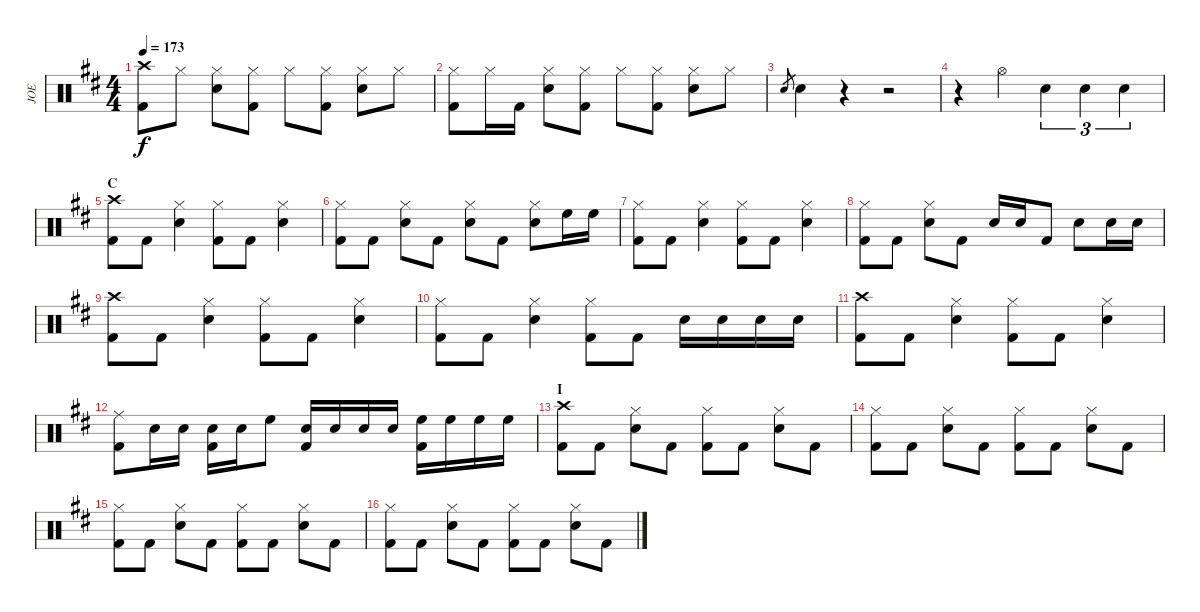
\track ("JOE" "JOE") {instrument percussion}
\staff {score}
\articulation defaults
\ts (4 4)
\tempo 173
\clef neutral
\ks bminor
("Crash high (hit)" "Kick (hit) 2").8{dy f} "Hi-Hat (closed)".8 ("Hi-Hat (closed)" "Snare (hit) 2").8 ("Hi-Hat (closed)" "Kick (hit) 2").8 "Hi-Hat (closed)".8 ("Hi-Hat (closed)" "Kick (hit) 2").8 ("Hi-Hat (closed)" "Snare (hit) 2").8 "Hi-Hat (closed)".8 |
("Hi-Hat (closed)" "Kick (hit) 2").8 "Hi-Hat (closed)".16 "Kick (hit) 2".16 ("Hi-Hat (closed)" "Snare (hit) 2").8 ("Hi-Hat (closed)" "Kick (hit) 2").8 "Hi-Hat (closed)".8 ("Hi-Hat (closed)" "Kick (hit) 2").8 ("Hi-Hat (closed)" "Snare (hit) 2").8 "Hi-Hat (closed)".8 |
"Snare (hit) 2".8{gr} "Snare (hit) 2".4 r.4 r.2 |
r.4 "Hi-Hat (open)".4 "Snare (hit) 2".4{tu (3 2)} "Snare (hit) 2".4{tu (3 2)} "Snare (hit) 2".4{tu (3 2)} |
\section ("" "C")
("Crash high (hit)" "Kick (hit) 2").8 "Kick (hit) 2".8 ("Hi-Hat (closed)" "Snare (hit) 2").4 ("Hi-Hat (closed)" "Kick (hit) 2").8 "Kick (hit) 2".8 ("Hi-Hat (closed)" "Snare (hit) 2").4 |
("Hi-Hat (closed)" "Kick (hit) 2").8 "Kick (hit) 2".8 ("Hi-Hat (closed)" "Snare (hit) 2").8 "Kick (hit) 2".8 ("Hi-Hat (closed)" "Snare (hit) 2").8 "Kick (hit) 2".8 ("Hi-Hat (closed)" "Snare (hit) 2").8 "High Floor Tom (hit)".16 "High Floor Tom (hit)".16 |
("Hi-Hat (closed)" "Kick (hit) 2").8 "Kick (hit) 2".8 ("Hi-Hat (closed)" "Snare (hit) 2").4 ("Hi-Hat (closed)" "Kick (hit) 2").8 "Kick (hit) 2".8 ("Hi-Hat (closed)" "Snare (hit) 2").4 |
("Hi-Hat (closed)" "Kick (hit) 2").8 "Kick (hit) 2".8 ("Hi-Hat (closed)" "Snare (hit) 2").8 "Kick (hit) 2".8 "Snare (hit) 2".16 "Snare (hit) 2".16 "Kick (hit) 2".8 "Snare (hit) 2".8 "Snare (hit) 2".16 "Snare (hit) 2".16 |
("Crash high (hit)" "Kick (hit) 2").8 "Kick (hit) 2".8 ("Hi-Hat (closed)" "Snare (hit) 2").4 ("Hi-Hat (closed)" "Kick (hit) 2").8 "Kick (hit) 2".8 ("Hi-Hat (closed)" "Snare (hit) 2").4 |
("Hi-Hat (closed)" "Kick (hit) 2").8 "Kick (hit) 2".8 ("Hi-Hat (closed)" "Snare (hit) 2").4 ("Hi-Hat (closed)" "Kick (hit) 2").8 "Kick (hit) 2".8 "Snare (hit) 2".16 "Snare (hit) 2".16 "Snare (hit) 2".16 "Snare (hit) 2".16 |
("Crash high (hit)" "Kick (hit) 2").8 "Kick (hit) 2".8 ("Hi-Hat (closed)" "Snare (hit) 2").4 ("Hi-Hat (closed)" "Kick (hit) 2").8 "Kick (hit) 2".8 ("Hi-Hat (closed)" "Snare (hit) 2").4 |
("Ride (middle)" "Kick (hit) 2").8 "Snare (hit) 2".16 "Snare (hit) 2".16 ("Snare (hit) 2" "Kick (hit) 2").16 "Snare (hit) 2".16 "High Floor Tom (hit)".8 ("Snare (hit) 2" "Kick (hit) 2").16 "Snare (hit) 2".16 "Snare (hit) 2".16 "Snare (hit) 2".16 ("High Floor Tom (hit)" "Kick (hit) 2").16 "High Floor Tom (hit)".16 "High Floor Tom (hit)".16 "High Floor Tom (hit)".16 |
\section ("" "I")
("Crash high (hit)" "Kick (hit) 2").8 "Kick (hit) 2".8 ("Hi-Hat (closed)" "Snare (hit) 2").8 "Kick (hit) 2".8 ("Hi-Hat (closed)" "Kick (hit) 2").8 "Kick (hit) 2".8 ("Hi-Hat (closed)" "Snare (hit) 2").8 "Kick (hit) 2".8 |
("Hi-Hat (closed)" "Kick (hit) 2").8 "Kick (hit) 2".8 ("Hi-Hat (closed)" "Snare (hit) 2").8 "Kick (hit) 2".8 ("Hi-Hat (closed)" "Kick (hit) 2").8 "Kick (hit) 2".8 ("Hi-Hat (closed)" "Snare (hit) 2").8 "Kick (hit) 2".8 |
("Hi-Hat (closed)" "Kick (hit) 2").8 "Kick (hit) 2".8 ("Hi-Hat (closed)" "Snare (hit) 2").8 "Kick (hit) 2".8 ("Hi-Hat (closed)" "Kick (hit) 2").8 "Kick (hit) 2".8 ("Hi-Hat (closed)" "Snare (hit) 2").8 "Kick (hit) 2".8 |
("Hi-Hat (closed)" "Kick (hit) 2").8 "Kick (hit) 2".8 ("Hi-Hat (closed)" "Snare (hit) 2").8 "Kick (hit) 2".8 ("Hi-Hat (closed)" "Kick (hit) 2").8 "Kick (hit) 2".8 ("Hi-Hat (closed)" "Snare (hit) 2").8 "Kick (hit) 2".8
